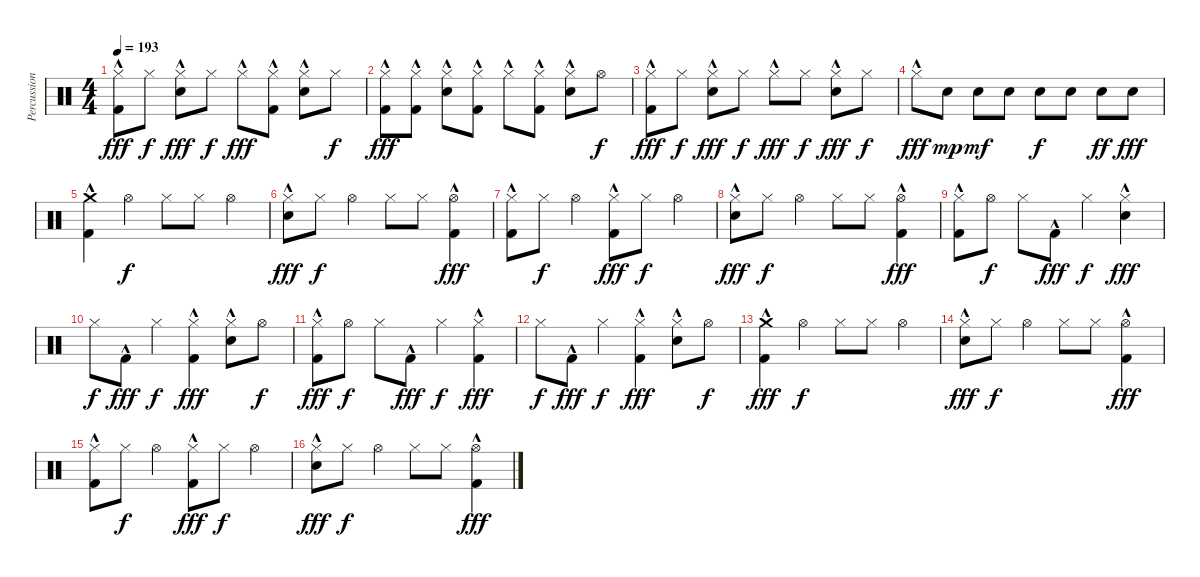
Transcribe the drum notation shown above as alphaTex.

\track ("Percussion" "Percussion") {instrument percussion}
\staff {score}
\articulation defaults
\ts (4 4)
\tempo 193
\clef neutral
\ks c
("Hi-Hat (closed)"{hac} "Kick (hit) 2"{hac}).8{dy fff} "Hi-Hat (closed)".8{dy f} ("Hi-Hat (closed)"{hac} "Electric Snare (hit)"{hac}).8{dy fff} "Hi-Hat (closed)".8{dy f} "Hi-Hat (closed)"{hac}.8{dy fff} ("Hi-Hat (closed)" "Kick (hit) 2"{hac}).8 ("Hi-Hat (closed)"{hac} "Electric Snare (hit)"{hac}).8 "Hi-Hat (closed)".8{dy f} |
("Hi-Hat (closed)"{hac} "Kick (hit) 2"{hac}).8{dy fff} ("Hi-Hat (closed)" "Kick (hit) 2"{hac}).8 ("Hi-Hat (closed)"{hac} "Electric Snare (hit)"{hac}).8 ("Hi-Hat (closed)" "Kick (hit) 2"{hac}).8 "Hi-Hat (closed)"{hac}.8 ("Hi-Hat (closed)" "Kick (hit) 2"{hac}).8 ("Hi-Hat (closed)"{hac} "Electric Snare (hit)"{hac}).8 "Hi-Hat (open)".8{dy f} |
("Hi-Hat (closed)"{hac} "Kick (hit) 2"{hac}).8{dy fff} "Hi-Hat (closed)".8{dy f} ("Hi-Hat (closed)"{hac} "Electric Snare (hit)"{hac}).8{dy fff} "Hi-Hat (closed)".8{dy f} "Hi-Hat (closed)"{hac}.8{dy fff} "Hi-Hat (closed)".8{dy f} ("Hi-Hat (closed)"{hac} "Electric Snare (hit)"{hac}).8{dy fff} "Hi-Hat (closed)".8{dy f} |
"Hi-Hat (closed)"{hac}.8{dy fff} "Electric Snare (hit)".8{dy mp} "Electric Snare (hit)".8{dy mf} "Electric Snare (hit)".8 "Electric Snare (hit)".8{dy f} "Electric Snare (hit)".8 "Electric Snare (hit)".8{dy ff} "Electric Snare (hit)".8{dy fff} |
("Crash medium (hit)"{hac} "Kick (hit) 2"{hac}).4 "Hi-Hat (open)".4{dy f} "Hi-Hat (closed)".8 "Hi-Hat (closed)".8 "Hi-Hat (open)".4 |
("Hi-Hat (closed)" "Electric Snare (hit)"{hac}).8{dy fff} "Hi-Hat (closed)".8{dy f} "Hi-Hat (open)".4 "Hi-Hat (closed)".8 "Hi-Hat (closed)".8 ("Hi-Hat (open)" "Kick (hit) 2"{hac}).4{dy fff} |
("Hi-Hat (closed)" "Kick (hit) 2"{hac}).8 "Hi-Hat (closed)".8{dy f} "Hi-Hat (open)".4 ("Hi-Hat (closed)" "Kick (hit) 2"{hac}).8{dy fff} "Hi-Hat (closed)".8{dy f} "Hi-Hat (open)".4 |
("Hi-Hat (closed)" "Electric Snare (hit)"{hac}).8{dy fff} "Hi-Hat (closed)".8{dy f} "Hi-Hat (open)".4 "Hi-Hat (closed)".8 "Hi-Hat (closed)".8 ("Hi-Hat (open)" "Kick (hit) 2"{hac}).4{dy fff} |
("Hi-Hat (closed)" "Kick (hit) 2"{hac}).8 "Hi-Hat (open)".8{dy f} "Hi-Hat (closed)".8 "Kick (hit) 2"{hac}.8{dy fff} "Hi-Hat (closed)".4{dy f} ("Hi-Hat (closed)" "Electric Snare (hit)"{hac}).4{dy fff} |
"Hi-Hat (closed)".8{dy f} "Kick (hit) 2"{hac}.8{dy fff} "Hi-Hat (closed)".4{dy f} ("Hi-Hat (closed)" "Kick (hit) 2"{hac}).4{dy fff} ("Hi-Hat (closed)" "Electric Snare (hit)"{hac}).8 "Hi-Hat (open)".8{dy f} |
("Hi-Hat (closed)" "Kick (hit) 2"{hac}).8{dy fff} "Hi-Hat (open)".8{dy f} "Hi-Hat (closed)".8 "Kick (hit) 2"{hac}.8{dy fff} "Hi-Hat (closed)".4{dy f} ("Hi-Hat (closed)" "Kick (hit) 2"{hac}).4{dy fff} |
"Hi-Hat (closed)".8{dy f} "Kick (hit) 2"{hac}.8{dy fff} "Hi-Hat (closed)".4{dy f} ("Hi-Hat (closed)" "Kick (hit) 2"{hac}).4{dy fff} ("Hi-Hat (closed)" "Electric Snare (hit)"{hac}).8 "Hi-Hat (open)".8{dy f} |
("Crash medium (hit)"{hac} "Kick (hit) 2"{hac}).4{dy fff} "Hi-Hat (open)".4{dy f} "Hi-Hat (closed)".8 "Hi-Hat (closed)".8 "Hi-Hat (open)".4 |
("Hi-Hat (closed)" "Electric Snare (hit)"{hac}).8{dy fff} "Hi-Hat (closed)".8{dy f} "Hi-Hat (open)".4 "Hi-Hat (closed)".8 "Hi-Hat (closed)".8 ("Hi-Hat (open)" "Kick (hit) 2"{hac}).4{dy fff} |
("Hi-Hat (closed)" "Kick (hit) 2"{hac}).8 "Hi-Hat (closed)".8{dy f} "Hi-Hat (open)".4 ("Hi-Hat (closed)" "Kick (hit) 2"{hac}).8{dy fff} "Hi-Hat (closed)".8{dy f} "Hi-Hat (open)".4 |
("Hi-Hat (closed)" "Electric Snare (hit)"{hac}).8{dy fff} "Hi-Hat (closed)".8{dy f} "Hi-Hat (open)".4 "Hi-Hat (closed)".8 "Hi-Hat (closed)".8 ("Hi-Hat (open)" "Kick (hit) 2"{hac}).4{dy fff}
